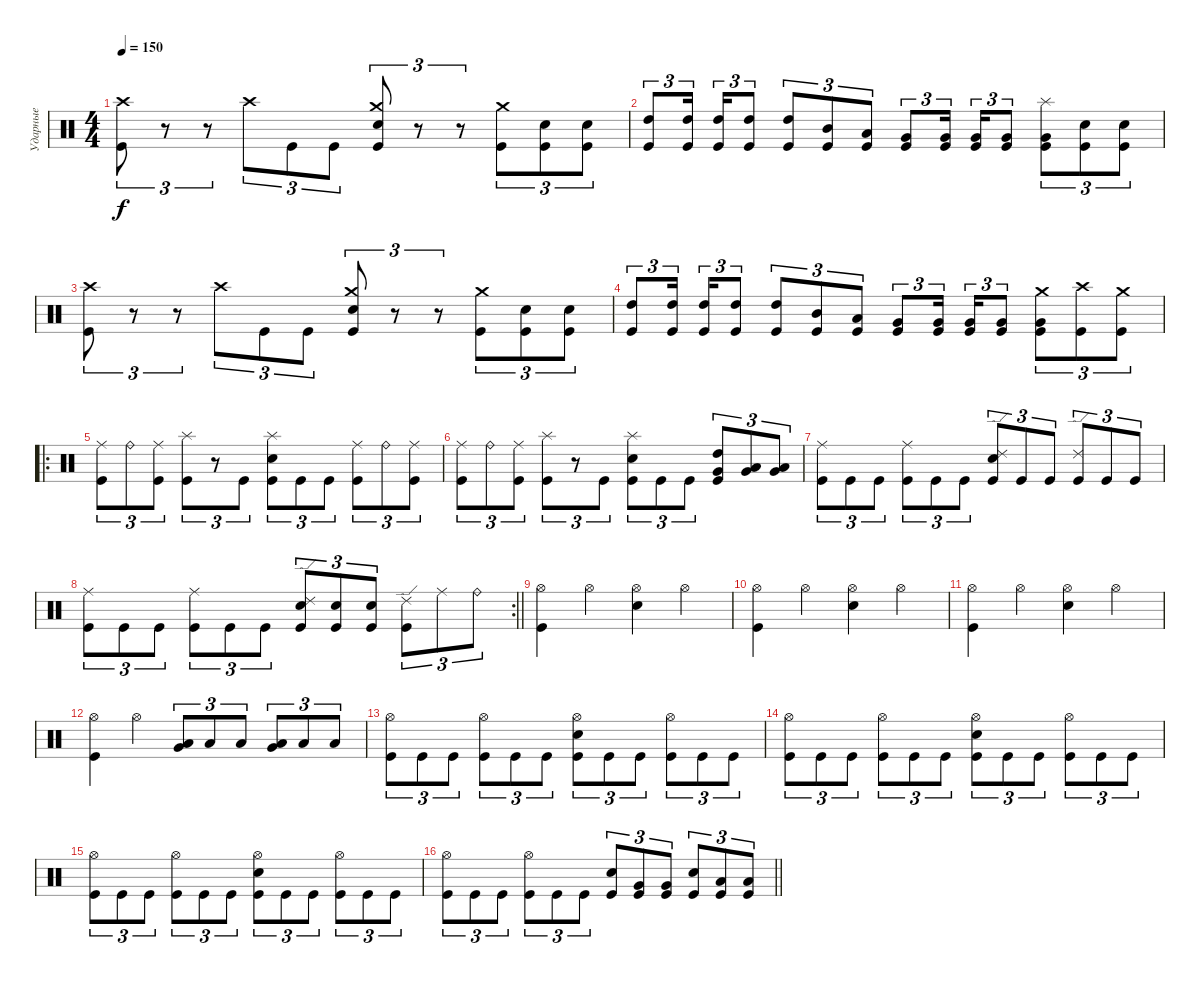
\track ("Ударные" "Ударные") {instrument percussion}
\staff {score}
\articulation defaults
\ts (4 4)
\tempo 150
\clef neutral
\ks c
("Crash high (hit)" "Kick (hit)").8{tu (3 2) dy f} r.8{tu (3 2)} r.8{tu (3 2)} "Crash high (hit)".8{tu (3 2)} "Kick (hit)".8{tu (3 2)} "Kick (hit)".8{tu (3 2)} ("Crash medium (hit)" "Electric Snare (hit)" "Kick (hit)").8{tu (3 2)} r.8{tu (3 2)} r.8{tu (3 2)} ("Crash medium (hit)" "Kick (hit)").8{tu (3 2)} ("Electric Snare (hit)" "Kick (hit)").8{tu (3 2)} ("Electric Snare (hit)" "Kick (hit)").8{tu (3 2)} |
("High Tom (hit)" "Kick (hit)").8{tu (3 2)} ("High Tom (hit)" "Kick (hit)").16{tu (3 2) beam splitsecondary} ("High Tom (hit)" "Kick (hit)").16{tu (3 2)} ("High Tom (hit)" "Kick (hit)").8{tu (3 2)} ("High Tom (hit)" "Kick (hit)").8{tu (3 2)} ("Mid Tom (hit)" "Kick (hit)").8{tu (3 2)} ("Low Tom (hit)" "Kick (hit)").8{tu (3 2)} ("Very Low Tom (hit)" "Kick (hit)").8{tu (3 2)} ("Very Low Tom (hit)" "Kick (hit)").16{tu (3 2) beam splitsecondary} ("Very Low Tom (hit)" "Kick (hit)").16{tu (3 2)} ("Very Low Tom (hit)" "Kick (hit)").8{tu (3 2)} ("Very Low Tom (hit)" "Splash (hit)" "Kick (hit)").8{tu (3 2)} ("Electric Snare (hit)" "Kick (hit)").8{tu (3 2)} ("Electric Snare (hit)" "Kick (hit)").8{tu (3 2)} |
("Crash high (hit)" "Kick (hit)").8{tu (3 2)} r.8{tu (3 2)} r.8{tu (3 2)} "Crash high (hit)".8{tu (3 2)} "Kick (hit)".8{tu (3 2)} "Kick (hit)".8{tu (3 2)} ("Crash medium (hit)" "Electric Snare (hit)" "Kick (hit)").8{tu (3 2)} r.8{tu (3 2)} r.8{tu (3 2)} ("Crash medium (hit)" "Kick (hit)").8{tu (3 2)} ("Electric Snare (hit)" "Kick (hit)").8{tu (3 2)} ("Electric Snare (hit)" "Kick (hit)").8{tu (3 2)} |
("High Tom (hit)" "Kick (hit)").8{tu (3 2)} ("High Tom (hit)" "Kick (hit)").16{tu (3 2) beam splitsecondary} ("High Tom (hit)" "Kick (hit)").16{tu (3 2)} ("High Tom (hit)" "Kick (hit)").8{tu (3 2)} ("High Tom (hit)" "Kick (hit)").8{tu (3 2)} ("Mid Tom (hit)" "Kick (hit)").8{tu (3 2)} ("Low Tom (hit)" "Kick (hit)").8{tu (3 2)} ("Very Low Tom (hit)" "Kick (hit)").8{tu (3 2)} ("Very Low Tom (hit)" "Kick (hit)").16{tu (3 2) beam splitsecondary} ("Very Low Tom (hit)" "Kick (hit)").16{tu (3 2)} ("Very Low Tom (hit)" "Kick (hit)").8{tu (3 2)} ("Very Low Tom (hit)" "Crash medium (hit)" "Kick (hit)").8{tu (3 2)} ("Crash high (hit)" "Kick (hit)").8{tu (3 2)} ("Crash medium (hit)" "Kick (hit)").8{tu (3 2)} |
\ro
("Kick (hit)" "Ride (middle)").8{tu (3 2)} "Ride (bell)".8{tu (3 2)} ("Kick (hit)" "Ride (middle)").8{tu (3 2)} ("Kick (hit)" "Splash (hit)").8{tu (3 2)} r.8{tu (3 2)} "Kick (hit)".8{tu (3 2)} ("Electric Snare (hit)" "Kick (hit)" "Splash (hit)").8{tu (3 2)} "Kick (hit)".8{tu (3 2)} "Kick (hit)".8{tu (3 2)} ("Kick (hit)" "Ride (middle)").8{tu (3 2)} "Ride (bell)".8{tu (3 2)} ("Kick (hit)" "Ride (middle)").8{tu (3 2)} |
("Kick (hit)" "Ride (middle)").8{tu (3 2)} "Ride (bell)".8{tu (3 2)} ("Kick (hit)" "Ride (middle)").8{tu (3 2)} ("Kick (hit)" "Splash (hit)").8{tu (3 2)} r.8{tu (3 2)} "Kick (hit)".8{tu (3 2)} ("Electric Snare (hit)" "Kick (hit)" "Splash (hit)").8{tu (3 2)} "Kick (hit)".8{tu (3 2)} "Kick (hit)".8{tu (3 2)} ("Kick (hit)" "High Tom (hit)" "Very Low Tom (hit)").8{tu (3 2)} ("Low Tom (hit)" "Very Low Tom (hit)").8{tu (3 2)} ("Very Low Tom (hit)" "Low Floor Tom (hit)").8{tu (3 2)} |
("Ride (middle)" "Kick (hit)").8{tu (3 2)} "Kick (hit)".8{tu (3 2)} "Kick (hit)".8{tu (3 2)} ("Ride (middle)" "Kick (hit)").8{tu (3 2)} "Kick (hit)".8{tu (3 2)} "Kick (hit)".8{tu (3 2)} ("Ride (edge) 2" "Electric Snare (hit)" "Kick (hit)").8{tu (3 2)} "Kick (hit)".8{tu (3 2)} "Kick (hit)".8{tu (3 2)} ("Ride (edge) 2" "Kick (hit)").8{tu (3 2)} "Kick (hit)".8{tu (3 2)} "Kick (hit)".8{tu (3 2)} |
\rc 2
\barLineRight lightlight
("Ride (middle)" "Kick (hit)").8{tu (3 2)} "Kick (hit)".8{tu (3 2)} "Kick (hit)".8{tu (3 2)} ("Ride (middle)" "Kick (hit)").8{tu (3 2)} "Kick (hit)".8{tu (3 2)} "Kick (hit)".8{tu (3 2)} ("Ride (edge) 2" "Electric Snare (hit)" "Kick (hit)").8{tu (3 2)} ("Electric Snare (hit)" "Kick (hit)").8{tu (3 2)} ("Electric Snare (hit)" "Kick (hit)").8{tu (3 2)} ("Ride (edge) 2" "Kick (hit)").8{tu (3 2)} "Ride (middle)".8{tu (3 2)} "Ride (bell)".8{tu (3 2)} |
\section ("" " ")
("Kick (hit)" "Hi-Hat (open)").4 "Hi-Hat (open)".4 ("Electric Snare (hit)" "Hi-Hat (open)").4 "Hi-Hat (open)".4 |
("Kick (hit)" "Hi-Hat (open)").4 "Hi-Hat (open)".4 ("Electric Snare (hit)" "Hi-Hat (open)").4 "Hi-Hat (open)".4 |
("Kick (hit)" "Hi-Hat (open)").4 "Hi-Hat (open)".4 ("Electric Snare (hit)" "Hi-Hat (open)").4 "Hi-Hat (open)".4 |
("Kick (hit)" "Hi-Hat (open)").4 "Hi-Hat (open)".4 ("Very Low Tom (hit)" "Low Floor Tom (hit)").8{tu (3 2)} "Low Floor Tom (hit)".8{tu (3 2)} "Low Floor Tom (hit)".8{tu (3 2)} ("Very Low Tom (hit)" "Low Floor Tom (hit)").8{tu (3 2)} "Low Floor Tom (hit)".8{tu (3 2)} "Low Floor Tom (hit)".8{tu (3 2)} |
("Hi-Hat (open)" "Kick (hit)").8{tu (3 2)} "Kick (hit)".8{tu (3 2)} "Kick (hit)".8{tu (3 2)} ("Hi-Hat (open)" "Kick (hit)").8{tu (3 2)} "Kick (hit)".8{tu (3 2)} "Kick (hit)".8{tu (3 2)} ("Electric Snare (hit)" "Hi-Hat (open)" "Kick (hit)").8{tu (3 2)} "Kick (hit)".8{tu (3 2)} "Kick (hit)".8{tu (3 2)} ("Hi-Hat (open)" "Kick (hit)").8{tu (3 2)} "Kick (hit)".8{tu (3 2)} "Kick (hit)".8{tu (3 2)} |
("Hi-Hat (open)" "Kick (hit)").8{tu (3 2)} "Kick (hit)".8{tu (3 2)} "Kick (hit)".8{tu (3 2)} ("Hi-Hat (open)" "Kick (hit)").8{tu (3 2)} "Kick (hit)".8{tu (3 2)} "Kick (hit)".8{tu (3 2)} ("Electric Snare (hit)" "Hi-Hat (open)" "Kick (hit)").8{tu (3 2)} "Kick (hit)".8{tu (3 2)} "Kick (hit)".8{tu (3 2)} ("Hi-Hat (open)" "Kick (hit)").8{tu (3 2)} "Kick (hit)".8{tu (3 2)} "Kick (hit)".8{tu (3 2)} |
("Hi-Hat (open)" "Kick (hit)").8{tu (3 2)} "Kick (hit)".8{tu (3 2)} "Kick (hit)".8{tu (3 2)} ("Hi-Hat (open)" "Kick (hit)").8{tu (3 2)} "Kick (hit)".8{tu (3 2)} "Kick (hit)".8{tu (3 2)} ("Electric Snare (hit)" "Hi-Hat (open)" "Kick (hit)").8{tu (3 2)} "Kick (hit)".8{tu (3 2)} "Kick (hit)".8{tu (3 2)} ("Hi-Hat (open)" "Kick (hit)").8{tu (3 2)} "Kick (hit)".8{tu (3 2)} "Kick (hit)".8{tu (3 2)} |
\barLineRight lightlight
("Hi-Hat (open)" "Kick (hit)").8{tu (3 2)} "Kick (hit)".8{tu (3 2)} "Kick (hit)".8{tu (3 2)} ("Hi-Hat (open)" "Kick (hit)").8{tu (3 2)} "Kick (hit)".8{tu (3 2)} "Kick (hit)".8{tu (3 2)} ("Electric Snare (hit)" "Kick (hit)").8{tu (3 2)} ("Very Low Tom (hit)" "Kick (hit)").8{tu (3 2)} ("Very Low Tom (hit)" "Kick (hit)").8{tu (3 2)} ("Electric Snare (hit)" "Kick (hit)").8{tu (3 2)} ("Low Floor Tom (hit)" "Kick (hit)").8{tu (3 2)} ("Low Floor Tom (hit)" "Kick (hit)").8{tu (3 2)}
